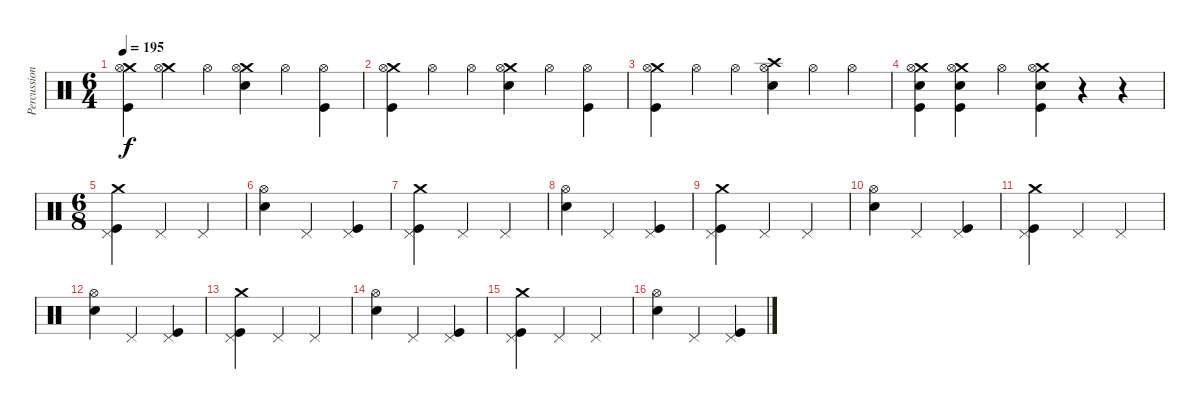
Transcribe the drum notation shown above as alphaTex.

\track ("Percussion" "Percussion") {instrument percussion}
\staff {score}
\articulation defaults
\ts (6 4)
\tempo 195
\clef neutral
\ks c
("Crash medium (hit)" "Hi-Hat (open)" "Kick (hit)").4{dy f} ("Crash medium (hit)" "Hi-Hat (open)").4 "Hi-Hat (open)".4 ("Crash medium (hit)" "Hi-Hat (open)" "Electric Snare (hit)").4 "Hi-Hat (open)".4 ("Hi-Hat (open)" "Kick (hit)").4 |
("Crash medium (hit)" "Hi-Hat (open)" "Kick (hit)").4 "Hi-Hat (open)".4 "Hi-Hat (open)".4 ("Crash medium (hit)" "Hi-Hat (open)" "Electric Snare (hit)").4 "Hi-Hat (open)".4 ("Hi-Hat (open)" "Kick (hit)").4 |
("Crash medium (hit)" "Hi-Hat (open)" "Kick (hit)").4 "Hi-Hat (open)".4 "Hi-Hat (open)".4 ("Crash high (hit)" "Hi-Hat (open)" "Electric Snare (hit)").4 "Hi-Hat (open)".4 "Hi-Hat (open)".4 |
("Crash medium (hit)" "Hi-Hat (open)" "Electric Snare (hit)" "Kick (hit)").4 ("Crash medium (hit)" "Hi-Hat (open)" "Electric Snare (hit)" "Kick (hit)").4 "Hi-Hat (open)".4 ("Crash medium (hit)" "Hi-Hat (open)" "Electric Snare (hit)" "Kick (hit)").4 r.4 r.4 |
\ts (6 8)
("Crash medium (hit)" "Pedal Hi-Hat (hit)" "Kick (hit)").4 "Pedal Hi-Hat (hit)".4 "Pedal Hi-Hat (hit)".4 |
("Hi-Hat (open)" "Electric Snare (hit)").4 "Pedal Hi-Hat (hit)".4 ("Pedal Hi-Hat (hit)" "Kick (hit)").4 |
("Crash medium (hit)" "Pedal Hi-Hat (hit)" "Kick (hit)").4 "Pedal Hi-Hat (hit)".4 "Pedal Hi-Hat (hit)".4 |
("Hi-Hat (open)" "Electric Snare (hit)").4 "Pedal Hi-Hat (hit)".4 ("Pedal Hi-Hat (hit)" "Kick (hit)").4 |
("Crash medium (hit)" "Pedal Hi-Hat (hit)" "Kick (hit)").4 "Pedal Hi-Hat (hit)".4 "Pedal Hi-Hat (hit)".4 |
("Hi-Hat (open)" "Electric Snare (hit)").4 "Pedal Hi-Hat (hit)".4 ("Pedal Hi-Hat (hit)" "Kick (hit)").4 |
("Crash medium (hit)" "Pedal Hi-Hat (hit)" "Kick (hit)").4 "Pedal Hi-Hat (hit)".4 "Pedal Hi-Hat (hit)".4 |
("Hi-Hat (open)" "Electric Snare (hit)").4 "Pedal Hi-Hat (hit)".4 ("Pedal Hi-Hat (hit)" "Kick (hit)").4 |
("Crash medium (hit)" "Pedal Hi-Hat (hit)" "Kick (hit)").4 "Pedal Hi-Hat (hit)".4 "Pedal Hi-Hat (hit)".4 |
("Hi-Hat (open)" "Electric Snare (hit)").4 "Pedal Hi-Hat (hit)".4 ("Pedal Hi-Hat (hit)" "Kick (hit)").4 |
("Crash medium (hit)" "Pedal Hi-Hat (hit)" "Kick (hit)").4 "Pedal Hi-Hat (hit)".4 "Pedal Hi-Hat (hit)".4 |
("Hi-Hat (open)" "Electric Snare (hit)").4 "Pedal Hi-Hat (hit)".4 ("Pedal Hi-Hat (hit)" "Kick (hit)").4
